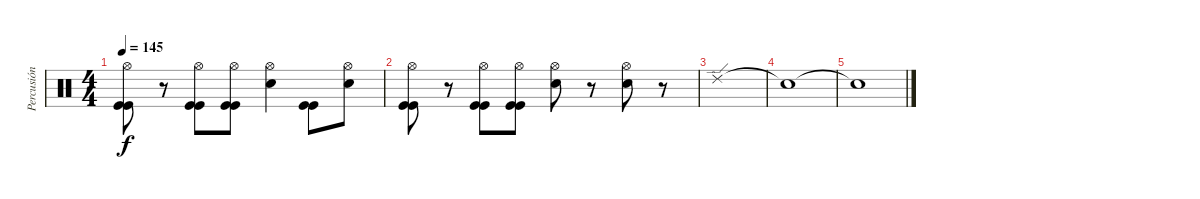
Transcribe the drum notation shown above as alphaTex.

\track ("Percusión" "Percusión") {instrument percussion}
\staff {score}
\articulation defaults
\ts (4 4)
\tempo 145
\clef neutral
\ks c
("Hi-Hat (open)" "Kick (hit)" "Kick (hit)").8{dy f} r.8 ("Hi-Hat (open)" "Kick (hit)" "Kick (hit)").8 ("Hi-Hat (open)" "Kick (hit)" "Kick (hit)").8 ("Hi-Hat (open)" "Electric Snare (hit)").4 ("Kick (hit)" "Kick (hit)").8 ("Hi-Hat (open)" "Electric Snare (hit)").8 |
("Hi-Hat (open)" "Kick (hit)" "Kick (hit)").8 r.8 ("Hi-Hat (open)" "Kick (hit)" "Kick (hit)").8 ("Hi-Hat (open)" "Kick (hit)" "Kick (hit)").8 ("Hi-Hat (open)" "Electric Snare (hit)").8 r.8 ("Hi-Hat (open)" "Electric Snare (hit)").8 r.8 |
"Ride (edge) 2".1 |
"Snare (hit)"{t}.1 |
"Snare (hit)"{t}.1
